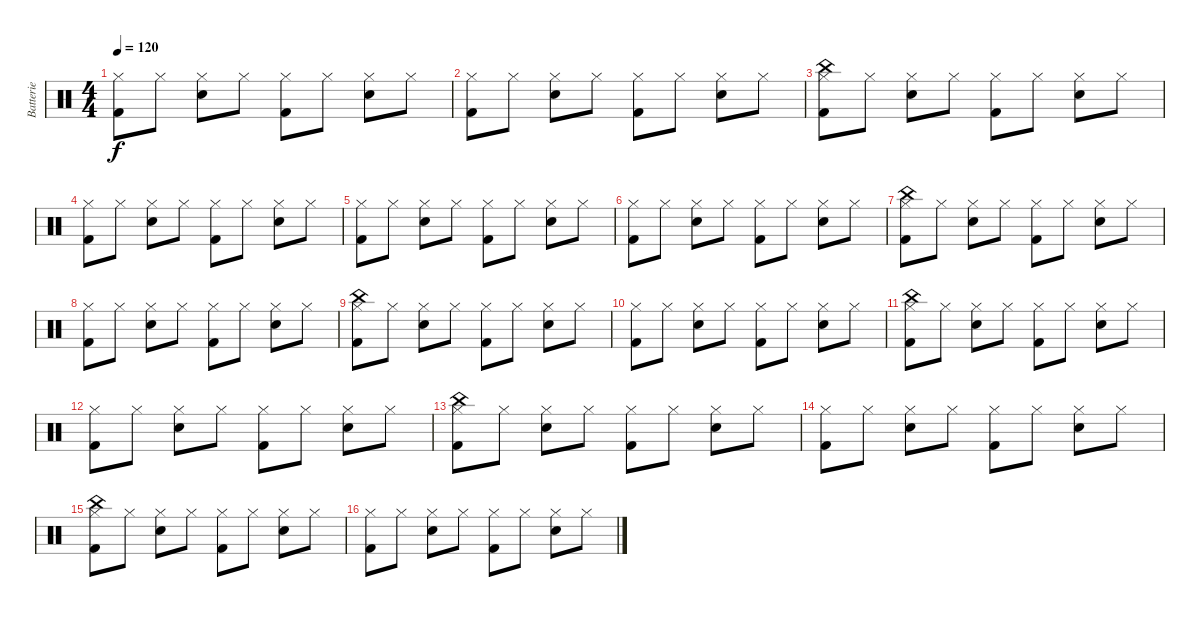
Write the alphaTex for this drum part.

\track ("Batterie" "Batterie") {instrument percussion}
\staff {score}
\articulation defaults
\ts (4 4)
\tempo 120
\clef neutral
\ks c
("Hi-Hat (closed)" "Kick (hit) 2").8{dy f} "Hi-Hat (closed)".8 ("Hi-Hat (closed)" "Electric Snare (hit)").8 "Hi-Hat (closed)".8 ("Hi-Hat (closed)" "Kick (hit) 2").8 "Hi-Hat (closed)".8 ("Hi-Hat (closed)" "Electric Snare (hit)").8 "Hi-Hat (closed)".8 |
("Hi-Hat (closed)" "Kick (hit) 2").8 "Hi-Hat (closed)".8 ("Hi-Hat (closed)" "Electric Snare (hit)").8 "Hi-Hat (closed)".8 ("Hi-Hat (closed)" "Kick (hit) 2").8 "Hi-Hat (closed)".8 ("Hi-Hat (closed)" "Electric Snare (hit)").8 "Hi-Hat (closed)".8 |
("Hi-Hat (closed)" "Kick (hit) 2" "China (hit)").8 "Hi-Hat (closed)".8 ("Hi-Hat (closed)" "Electric Snare (hit)").8 "Hi-Hat (closed)".8 ("Hi-Hat (closed)" "Kick (hit) 2").8 "Hi-Hat (closed)".8 ("Hi-Hat (closed)" "Electric Snare (hit)").8 "Hi-Hat (closed)".8 |
("Hi-Hat (closed)" "Kick (hit) 2").8 "Hi-Hat (closed)".8 ("Hi-Hat (closed)" "Electric Snare (hit)").8 "Hi-Hat (closed)".8 ("Hi-Hat (closed)" "Kick (hit) 2").8 "Hi-Hat (closed)".8 ("Hi-Hat (closed)" "Electric Snare (hit)").8 "Hi-Hat (closed)".8 |
("Hi-Hat (closed)" "Kick (hit) 2").8 "Hi-Hat (closed)".8 ("Hi-Hat (closed)" "Electric Snare (hit)").8 "Hi-Hat (closed)".8 ("Hi-Hat (closed)" "Kick (hit) 2").8 "Hi-Hat (closed)".8 ("Hi-Hat (closed)" "Electric Snare (hit)").8 "Hi-Hat (closed)".8 |
("Hi-Hat (closed)" "Kick (hit) 2").8 "Hi-Hat (closed)".8 ("Hi-Hat (closed)" "Electric Snare (hit)").8 "Hi-Hat (closed)".8 ("Hi-Hat (closed)" "Kick (hit) 2").8 "Hi-Hat (closed)".8 ("Hi-Hat (closed)" "Electric Snare (hit)").8 "Hi-Hat (closed)".8 |
("Hi-Hat (closed)" "Kick (hit) 2" "China (hit)").8 "Hi-Hat (closed)".8 ("Hi-Hat (closed)" "Electric Snare (hit)").8 "Hi-Hat (closed)".8 ("Hi-Hat (closed)" "Kick (hit) 2").8 "Hi-Hat (closed)".8 ("Hi-Hat (closed)" "Electric Snare (hit)").8 "Hi-Hat (closed)".8 |
("Hi-Hat (closed)" "Kick (hit) 2").8 "Hi-Hat (closed)".8 ("Hi-Hat (closed)" "Electric Snare (hit)").8 "Hi-Hat (closed)".8 ("Hi-Hat (closed)" "Kick (hit) 2").8 "Hi-Hat (closed)".8 ("Hi-Hat (closed)" "Electric Snare (hit)").8 "Hi-Hat (closed)".8 |
("Hi-Hat (closed)" "Kick (hit) 2" "China (hit)").8 "Hi-Hat (closed)".8 ("Hi-Hat (closed)" "Electric Snare (hit)").8 "Hi-Hat (closed)".8 ("Hi-Hat (closed)" "Kick (hit) 2").8 "Hi-Hat (closed)".8 ("Hi-Hat (closed)" "Electric Snare (hit)").8 "Hi-Hat (closed)".8 |
("Hi-Hat (closed)" "Kick (hit) 2").8 "Hi-Hat (closed)".8 ("Hi-Hat (closed)" "Electric Snare (hit)").8 "Hi-Hat (closed)".8 ("Hi-Hat (closed)" "Kick (hit) 2").8 "Hi-Hat (closed)".8 ("Hi-Hat (closed)" "Electric Snare (hit)").8 "Hi-Hat (closed)".8 |
("Hi-Hat (closed)" "Kick (hit) 2" "China (hit)").8 "Hi-Hat (closed)".8 ("Hi-Hat (closed)" "Electric Snare (hit)").8 "Hi-Hat (closed)".8 ("Hi-Hat (closed)" "Kick (hit) 2").8 "Hi-Hat (closed)".8 ("Hi-Hat (closed)" "Electric Snare (hit)").8 "Hi-Hat (closed)".8 |
("Hi-Hat (closed)" "Kick (hit) 2").8 "Hi-Hat (closed)".8 ("Hi-Hat (closed)" "Electric Snare (hit)").8 "Hi-Hat (closed)".8 ("Hi-Hat (closed)" "Kick (hit) 2").8 "Hi-Hat (closed)".8 ("Hi-Hat (closed)" "Electric Snare (hit)").8 "Hi-Hat (closed)".8 |
("Hi-Hat (closed)" "Kick (hit) 2" "China (hit)").8 "Hi-Hat (closed)".8 ("Hi-Hat (closed)" "Electric Snare (hit)").8 "Hi-Hat (closed)".8 ("Hi-Hat (closed)" "Kick (hit) 2").8 "Hi-Hat (closed)".8 ("Hi-Hat (closed)" "Electric Snare (hit)").8 "Hi-Hat (closed)".8 |
("Hi-Hat (closed)" "Kick (hit) 2").8 "Hi-Hat (closed)".8 ("Hi-Hat (closed)" "Electric Snare (hit)").8 "Hi-Hat (closed)".8 ("Hi-Hat (closed)" "Kick (hit) 2").8 "Hi-Hat (closed)".8 ("Hi-Hat (closed)" "Electric Snare (hit)").8 "Hi-Hat (closed)".8 |
("Hi-Hat (closed)" "Kick (hit) 2" "China (hit)").8 "Hi-Hat (closed)".8 ("Hi-Hat (closed)" "Electric Snare (hit)").8 "Hi-Hat (closed)".8 ("Hi-Hat (closed)" "Kick (hit) 2").8 "Hi-Hat (closed)".8 ("Hi-Hat (closed)" "Electric Snare (hit)").8 "Hi-Hat (closed)".8 |
("Hi-Hat (closed)" "Kick (hit) 2").8 "Hi-Hat (closed)".8 ("Hi-Hat (closed)" "Electric Snare (hit)").8 "Hi-Hat (closed)".8 ("Hi-Hat (closed)" "Kick (hit) 2").8 "Hi-Hat (closed)".8 ("Hi-Hat (closed)" "Electric Snare (hit)").8 "Hi-Hat (closed)".8
